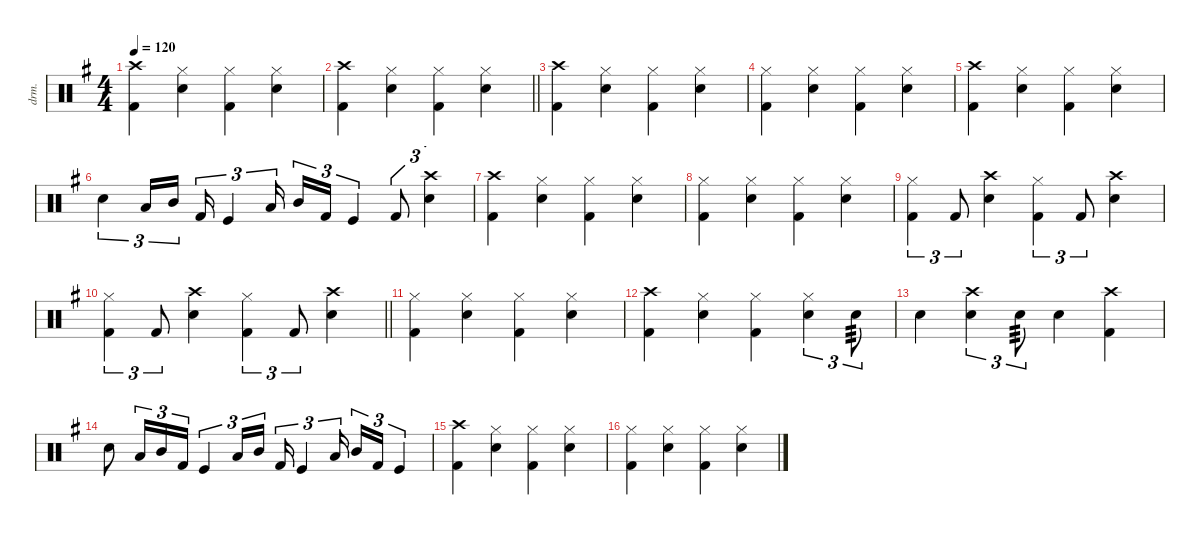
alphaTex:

\defaultSystemsLayout 4
\hideDynamics
\bracketExtendMode nobrackets
\otherSystemsTrackNameOrientation horizontal
\track ("Percusión" "drm.") {defaultSystemsLayout 4 instrument percussion}
\staff {score}
\articulation defaults
\ts (4 4)
\tempo 120
\clef neutral
\ks g
("Crash high (hit)"{acc forcenatural} "Kick (hit) 2"{acc forcenatural}).4{dy f beam Down} ("Hi-Hat (closed)"{acc forcenatural} "Snare (hit) 2"{acc forcenatural}).4{beam Down} ("Hi-Hat (closed)"{acc forcenatural} "Kick (hit) 2"{acc forcenatural}).4{beam Down} ("Hi-Hat (closed)"{acc forcenatural} "Snare (hit) 2"{acc forcenatural}).4{beam Down} |
\barLineRight lightlight
("Crash high (hit)"{acc forcenatural} "Kick (hit) 2"{acc forcenatural}).4{beam Down} ("Hi-Hat (closed)"{acc forcenatural} "Snare (hit) 2"{acc forcenatural}).4{beam Down} ("Hi-Hat (closed)"{acc forcenatural} "Kick (hit) 2"{acc forcenatural}).4{beam Down} ("Hi-Hat (closed)"{acc forcenatural} "Snare (hit) 2"{acc forcenatural}).4{beam Down} |
("Crash high (hit)"{acc forcenatural} "Kick (hit) 2"{acc forcenatural}).4{beam Down} ("Hi-Hat (closed)"{acc forcenatural} "Snare (hit) 2"{acc forcenatural}).4{beam Down} ("Hi-Hat (closed)"{acc forcenatural} "Kick (hit) 2"{acc forcenatural}).4{beam Down} ("Hi-Hat (closed)"{acc forcenatural} "Snare (hit) 2"{acc forcenatural}).4{beam Down} |
("Hi-Hat (closed)"{acc forcenatural} "Kick (hit) 2"{acc forcenatural}).4{beam Down} ("Hi-Hat (closed)"{acc forcenatural} "Snare (hit) 2"{acc forcenatural}).4{beam Down} ("Hi-Hat (closed)"{acc forcenatural} "Kick (hit) 2"{acc forcenatural}).4{beam Down} ("Hi-Hat (closed)"{acc forcenatural} "Snare (hit) 2"{acc forcenatural}).4{beam Down} |
("Crash high (hit)"{acc forcenatural} "Kick (hit) 2"{acc forcenatural}).4{beam Down} ("Hi-Hat (closed)"{acc forcenatural} "Snare (hit) 2"{acc forcenatural}).4{beam Down} ("Hi-Hat (closed)"{acc forcenatural} "Kick (hit) 2"{acc forcenatural}).4{beam Down} ("Hi-Hat (closed)"{acc forcenatural} "Snare (hit) 2"{acc forcenatural}).4{beam Down} |
"Snare (hit) 2"{acc forcenatural}.4{tu (3 2) beam Down} "Low Tom (hit)"{acc forcenatural}.16{tu (3 2) beam Up} "Mid Tom (hit)"{acc forcenatural}.16{tu (3 2) beam Up} "Kick (hit) 2"{acc forcenatural}.16{tu (3 2) beam Up} "Kick (hit)"{acc forcenatural}.4{tu (3 2) beam Up} "Low Tom (hit)"{acc forcenatural}.16{tu (3 2) beam Up} "Mid Tom (hit)"{acc forcenatural}.16{tu (3 2) beam Up} "Kick (hit) 2"{acc forcenatural}.16{tu (3 2) beam Up} "Kick (hit)"{acc forcenatural}.4{tu (3 2) beam Up} "Kick (hit) 2"{acc forcenatural}.8{tu (3 2) beam Up} ("Crash high (hit)"{acc forcenatural} "Snare (hit) 2"{acc forcenatural}).4{tu (3 2) beam Down} |
("Crash high (hit)"{acc forcenatural} "Kick (hit) 2"{acc forcenatural}).4{beam Down} ("Hi-Hat (closed)"{acc forcenatural} "Snare (hit) 2"{acc forcenatural}).4{beam Down} ("Hi-Hat (closed)"{acc forcenatural} "Kick (hit) 2"{acc forcenatural}).4{beam Down} ("Hi-Hat (closed)"{acc forcenatural} "Snare (hit) 2"{acc forcenatural}).4{beam Down} |
("Hi-Hat (closed)"{acc forcenatural} "Kick (hit) 2"{acc forcenatural}).4{beam Down} ("Hi-Hat (closed)"{acc forcenatural} "Snare (hit) 2"{acc forcenatural}).4{beam Down} ("Hi-Hat (closed)"{acc forcenatural} "Kick (hit) 2"{acc forcenatural}).4{beam Down} ("Hi-Hat (closed)"{acc forcenatural} "Snare (hit) 2"{acc forcenatural}).4{beam Down} |
("Hi-Hat (closed)"{acc forcenatural} "Kick (hit) 2"{acc forcenatural}).4{tu (3 2) beam Down} "Kick (hit) 2"{acc forcenatural}.8{tu (3 2) beam Up} ("Crash high (hit)"{acc forcenatural} "Snare (hit) 2"{acc forcenatural}).4{beam Down} ("Hi-Hat (closed)"{acc forcenatural} "Kick (hit) 2"{acc forcenatural}).4{tu (3 2) beam Down} "Kick (hit) 2"{acc forcenatural}.8{tu (3 2) beam Up} ("Crash high (hit)"{acc forcenatural} "Snare (hit) 2"{acc forcenatural}).4{beam Down} |
\barLineRight lightlight
("Hi-Hat (closed)"{acc forcenatural} "Kick (hit) 2"{acc forcenatural}).4{tu (3 2) beam Down} "Kick (hit) 2"{acc forcenatural}.8{tu (3 2) beam Up} ("Crash high (hit)"{acc forcenatural} "Snare (hit) 2"{acc forcenatural}).4{beam Down} ("Hi-Hat (closed)"{acc forcenatural} "Kick (hit) 2"{acc forcenatural}).4{tu (3 2) beam Down} "Kick (hit) 2"{acc forcenatural}.8{tu (3 2) beam Up} ("Crash high (hit)"{acc forcenatural} "Snare (hit) 2"{acc forcenatural}).4{beam Down} |
("Hi-Hat (closed)"{acc forcenatural} "Kick (hit) 2"{acc forcenatural}).4{beam Down} ("Hi-Hat (closed)"{acc forcenatural} "Snare (hit) 2"{acc forcenatural}).4{beam Down} ("Hi-Hat (closed)"{acc forcenatural} "Kick (hit) 2"{acc forcenatural}).4{beam Down} ("Hi-Hat (closed)"{acc forcenatural} "Snare (hit) 2"{acc forcenatural}).4{beam Down} |
("Crash high (hit)"{acc forcenatural} "Kick (hit) 2"{acc forcenatural}).4{beam Down} ("Hi-Hat (closed)"{acc forcenatural} "Snare (hit) 2"{acc forcenatural}).4{beam Down} ("Hi-Hat (closed)"{acc forcenatural} "Kick (hit) 2"{acc forcenatural}).4{beam Down} ("Hi-Hat (closed)"{acc forcenatural} "Snare (hit) 2"{acc forcenatural}).4{tu (3 2) beam Down} "Snare (hit) 2"{acc forcenatural}.8{tu (3 2) tp 3 beam Down} |
"Snare (hit) 2"{acc forcenatural}.4{beam Down} ("Crash high (hit)"{acc forcenatural} "Snare (hit) 2"{acc forcenatural}).4{tu (3 2) beam Down} "Snare (hit) 2"{acc forcenatural}.8{tu (3 2) tp 3 beam Down} "Snare (hit) 2"{acc forcenatural}.4{beam Down} ("Crash high (hit)"{acc forcenatural} "Kick (hit) 2"{acc forcenatural}).4{beam Down} |
"Snare (hit) 2"{acc forcenatural}.8{beam Down} "Low Tom (hit)"{acc forcenatural}.16{tu (3 2) beam Up} "Mid Tom (hit)"{acc forcenatural}.16{tu (3 2) beam Up} "Kick (hit) 2"{acc forcenatural}.16{tu (3 2) beam Up} "Kick (hit)"{acc forcenatural}.4{tu (3 2) beam Up} "Low Tom (hit)"{acc forcenatural}.16{tu (3 2) beam Up} "Mid Tom (hit)"{acc forcenatural}.16{tu (3 2) beam Up} "Kick (hit) 2"{acc forcenatural}.16{tu (3 2) beam Up} "Kick (hit)"{acc forcenatural}.4{tu (3 2) beam Up} "Low Tom (hit)"{acc forcenatural}.16{tu (3 2) beam Up} "Mid Tom (hit)"{acc forcenatural}.16{tu (3 2) beam Up} "Kick (hit) 2"{acc forcenatural}.16{tu (3 2) beam Up} "Kick (hit)"{acc forcenatural}.4{tu (3 2) beam Up} |
("Crash high (hit)"{acc forcenatural} "Kick (hit) 2"{acc forcenatural}).4{beam Down} ("Hi-Hat (closed)"{acc forcenatural} "Snare (hit) 2"{acc forcenatural}).4{beam Down} ("Hi-Hat (closed)"{acc forcenatural} "Kick (hit) 2"{acc forcenatural}).4{beam Down} ("Hi-Hat (closed)"{acc forcenatural} "Snare (hit) 2"{acc forcenatural}).4{beam Down} |
("Hi-Hat (closed)"{acc forcenatural} "Kick (hit) 2"{acc forcenatural}).4{beam Down} ("Hi-Hat (closed)"{acc forcenatural} "Snare (hit) 2"{acc forcenatural}).4{beam Down} ("Hi-Hat (closed)"{acc forcenatural} "Kick (hit) 2"{acc forcenatural}).4{beam Down} ("Hi-Hat (closed)"{acc forcenatural} "Snare (hit) 2"{acc forcenatural}).4{beam Down}
